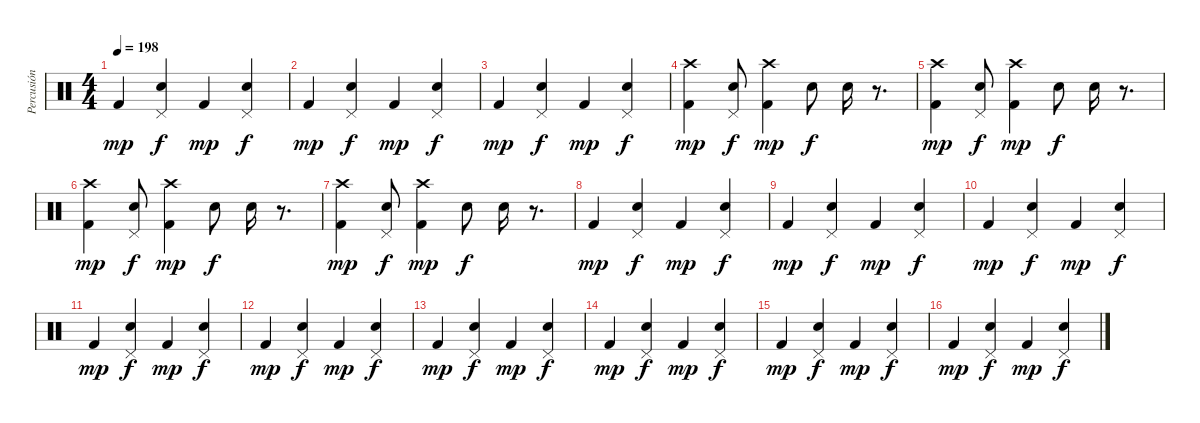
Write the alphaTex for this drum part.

\track ("Percusión" "Percusión") {instrument percussion}
\staff {score}
\articulation defaults
\ts (4 4)
\tempo 198
\clef neutral
\ks c "Kick (hit) 2".4{dy mp}
("Pedal Hi-Hat (hit)" "Snare (hit) 2").4{dy f} "Kick (hit) 2".4{dy mp} ("Pedal Hi-Hat (hit)" "Snare (hit) 2").4{dy f} |
"Kick (hit) 2".4{dy mp} ("Pedal Hi-Hat (hit)" "Snare (hit) 2").4{dy f} "Kick (hit) 2".4{dy mp} ("Pedal Hi-Hat (hit)" "Snare (hit) 2").4{dy f} |
"Kick (hit) 2".4{dy mp} ("Pedal Hi-Hat (hit)" "Snare (hit) 2").4{dy f} "Kick (hit) 2".4{dy mp} ("Pedal Hi-Hat (hit)" "Snare (hit) 2").4{dy f} |
("Crash high (hit)" "Kick (hit) 2").4{dy mp} ("Pedal Hi-Hat (hit)" "Snare (hit) 2").8{dy f} ("Crash high (hit)" "Kick (hit) 2").4{dy mp} "Snare (hit) 2".8{dy f} "Snare (hit) 2".16 r.8{d} |
("Crash high (hit)" "Kick (hit) 2").4{dy mp} ("Pedal Hi-Hat (hit)" "Snare (hit) 2").8{dy f} ("Crash high (hit)" "Kick (hit) 2").4{dy mp} "Snare (hit) 2".8{dy f} "Snare (hit) 2".16 r.8{d} |
("Crash high (hit)" "Kick (hit) 2").4{dy mp} ("Pedal Hi-Hat (hit)" "Snare (hit) 2").8{dy f} ("Crash high (hit)" "Kick (hit) 2").4{dy mp} "Snare (hit) 2".8{dy f} "Snare (hit) 2".16 r.8{d} |
("Crash high (hit)" "Kick (hit) 2").4{dy mp} ("Pedal Hi-Hat (hit)" "Snare (hit) 2").8{dy f} ("Crash high (hit)" "Kick (hit) 2").4{dy mp} "Snare (hit) 2".8{dy f} "Snare (hit) 2".16 r.8{d} |
"Kick (hit) 2".4{dy mp} ("Pedal Hi-Hat (hit)" "Snare (hit) 2").4{dy f} "Kick (hit) 2".4{dy mp} ("Pedal Hi-Hat (hit)" "Snare (hit) 2").4{dy f} |
"Kick (hit) 2".4{dy mp} ("Pedal Hi-Hat (hit)" "Snare (hit) 2").4{dy f} "Kick (hit) 2".4{dy mp} ("Pedal Hi-Hat (hit)" "Snare (hit) 2").4{dy f} |
"Kick (hit) 2".4{dy mp} ("Pedal Hi-Hat (hit)" "Snare (hit) 2").4{dy f} "Kick (hit) 2".4{dy mp} ("Pedal Hi-Hat (hit)" "Snare (hit) 2").4{dy f} |
"Kick (hit) 2".4{dy mp} ("Pedal Hi-Hat (hit)" "Snare (hit) 2").4{dy f} "Kick (hit) 2".4{dy mp} ("Pedal Hi-Hat (hit)" "Snare (hit) 2").4{dy f} |
"Kick (hit) 2".4{dy mp} ("Pedal Hi-Hat (hit)" "Snare (hit) 2").4{dy f} "Kick (hit) 2".4{dy mp} ("Pedal Hi-Hat (hit)" "Snare (hit) 2").4{dy f} |
"Kick (hit) 2".4{dy mp} ("Pedal Hi-Hat (hit)" "Snare (hit) 2").4{dy f} "Kick (hit) 2".4{dy mp} ("Pedal Hi-Hat (hit)" "Snare (hit) 2").4{dy f} |
"Kick (hit) 2".4{dy mp} ("Pedal Hi-Hat (hit)" "Snare (hit) 2").4{dy f} "Kick (hit) 2".4{dy mp} ("Pedal Hi-Hat (hit)" "Snare (hit) 2").4{dy f} |
"Kick (hit) 2".4{dy mp} ("Pedal Hi-Hat (hit)" "Snare (hit) 2").4{dy f} "Kick (hit) 2".4{dy mp} ("Pedal Hi-Hat (hit)" "Snare (hit) 2").4{dy f} |
"Kick (hit) 2".4{dy mp} ("Pedal Hi-Hat (hit)" "Snare (hit) 2").4{dy f} "Kick (hit) 2".4{dy mp} ("Pedal Hi-Hat (hit)" "Snare (hit) 2").4{dy f}
